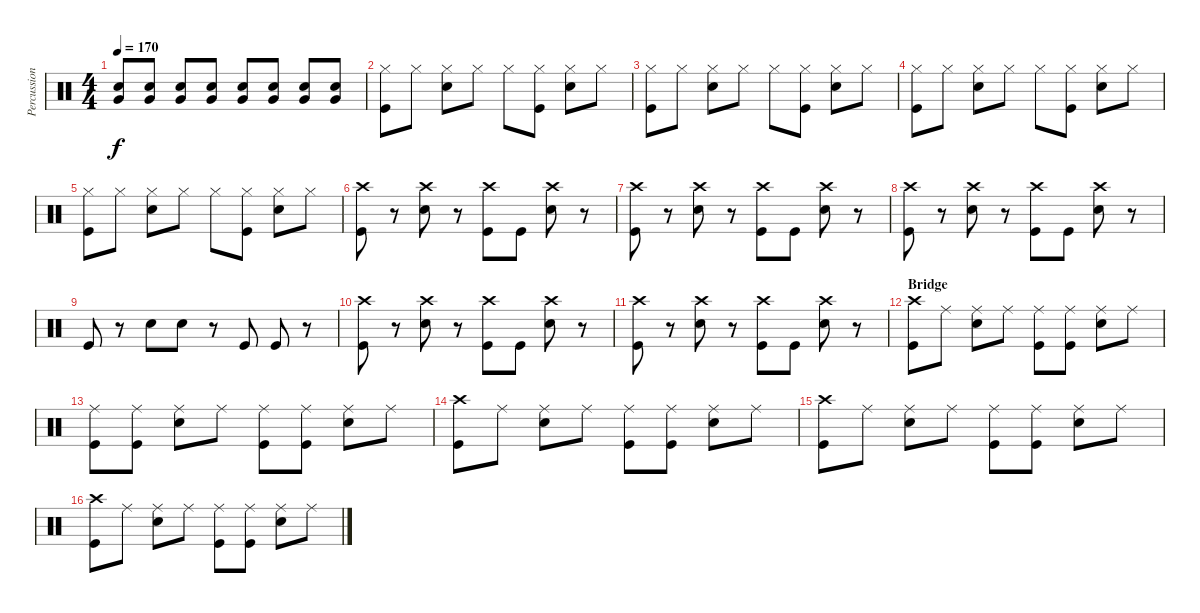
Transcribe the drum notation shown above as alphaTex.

\track ("Percussion" "Percussion") {instrument percussion}
\staff {score}
\articulation defaults
\ts (4 4)
\tempo 170
\clef neutral
\ks c
("Snare (hit) 2" "Very Low Tom (hit)").8{dy f} ("Snare (hit) 2" "Very Low Tom (hit)").8 ("Snare (hit) 2" "Very Low Tom (hit)").8 ("Snare (hit) 2" "Very Low Tom (hit)").8 ("Snare (hit) 2" "Very Low Tom (hit)").8 ("Snare (hit) 2" "Very Low Tom (hit)").8 ("Snare (hit) 2" "Very Low Tom (hit)").8 ("Snare (hit) 2" "Very Low Tom (hit)").8 |
("Hi-Hat (closed)" "Kick (hit)").8 "Hi-Hat (closed)".8 ("Hi-Hat (closed)" "Snare (hit) 2").8 "Hi-Hat (closed)".8 "Hi-Hat (closed)".8 ("Hi-Hat (closed)" "Kick (hit)").8 ("Hi-Hat (closed)" "Snare (hit) 2").8 "Hi-Hat (closed)".8 |
("Hi-Hat (closed)" "Kick (hit)").8 "Hi-Hat (closed)".8 ("Hi-Hat (closed)" "Snare (hit) 2").8 "Hi-Hat (closed)".8 "Hi-Hat (closed)".8 ("Hi-Hat (closed)" "Kick (hit)").8 ("Hi-Hat (closed)" "Snare (hit) 2").8 "Hi-Hat (closed)".8 |
("Hi-Hat (closed)" "Kick (hit)").8 "Hi-Hat (closed)".8 ("Hi-Hat (closed)" "Snare (hit) 2").8 "Hi-Hat (closed)".8 "Hi-Hat (closed)".8 ("Hi-Hat (closed)" "Kick (hit)").8 ("Hi-Hat (closed)" "Snare (hit) 2").8 "Hi-Hat (closed)".8 |
("Hi-Hat (closed)" "Kick (hit)").8 "Hi-Hat (closed)".8 ("Hi-Hat (closed)" "Snare (hit) 2").8 "Hi-Hat (closed)".8 "Hi-Hat (closed)".8 ("Hi-Hat (closed)" "Kick (hit)").8 ("Hi-Hat (closed)" "Snare (hit) 2").8 "Hi-Hat (closed)".8 |
("Crash high (hit)" "Kick (hit)").8 r.8 ("Crash high (hit)" "Snare (hit) 2").8 r.8 ("Crash high (hit)" "Kick (hit)").8 "Kick (hit)".8 ("Crash high (hit)" "Snare (hit) 2").8 r.8 |
("Crash high (hit)" "Kick (hit)").8 r.8 ("Crash high (hit)" "Snare (hit) 2").8 r.8 ("Crash high (hit)" "Kick (hit)").8 "Kick (hit)".8 ("Crash high (hit)" "Snare (hit) 2").8 r.8 |
("Crash high (hit)" "Kick (hit)").8 r.8 ("Crash high (hit)" "Snare (hit) 2").8 r.8 ("Crash high (hit)" "Kick (hit)").8 "Kick (hit)".8 ("Crash high (hit)" "Snare (hit) 2").8 r.8 |
"Kick (hit)".8 r.8 "Snare (hit) 2".8 "Snare (hit) 2".8 r.8 "Kick (hit)".8 "Kick (hit)".8 r.8 |
("Crash high (hit)" "Kick (hit)").8 r.8 ("Crash high (hit)" "Snare (hit) 2").8 r.8 ("Crash high (hit)" "Kick (hit)").8 "Kick (hit)".8 ("Crash high (hit)" "Snare (hit) 2").8 r.8 |
("Crash high (hit)" "Kick (hit)").8 r.8 ("Crash high (hit)" "Snare (hit) 2").8 r.8 ("Crash high (hit)" "Kick (hit)").8 "Kick (hit)".8 ("Crash high (hit)" "Snare (hit) 2").8 r.8 |
\section ("" "Bridge")
("Crash high (hit)" "Kick (hit)").8 "Ride (middle)".8 ("Ride (middle)" "Snare (hit) 2").8 "Ride (middle)".8 ("Ride (middle)" "Kick (hit)").8 ("Ride (middle)" "Kick (hit)").8 ("Ride (middle)" "Snare (hit) 2").8 "Ride (middle)".8 |
("Ride (middle)" "Kick (hit)").8 ("Ride (middle)" "Kick (hit)").8 ("Ride (middle)" "Snare (hit) 2").8 "Ride (middle)".8 ("Ride (middle)" "Kick (hit)").8 ("Ride (middle)" "Kick (hit)").8 ("Ride (middle)" "Snare (hit) 2").8 "Ride (middle)".8 |
("Crash high (hit)" "Kick (hit)").8 "Ride (middle)".8 ("Ride (middle)" "Snare (hit) 2").8 "Ride (middle)".8 ("Ride (middle)" "Kick (hit)").8 ("Ride (middle)" "Kick (hit)").8 ("Ride (middle)" "Snare (hit) 2").8 "Ride (middle)".8 |
("Crash high (hit)" "Kick (hit)").8 "Ride (middle)".8 ("Ride (middle)" "Snare (hit) 2").8 "Ride (middle)".8 ("Ride (middle)" "Kick (hit)").8 ("Ride (middle)" "Kick (hit)").8 ("Ride (middle)" "Snare (hit) 2").8 "Ride (middle)".8 |
("Crash high (hit)" "Kick (hit)").8 "Ride (middle)".8 ("Ride (middle)" "Snare (hit) 2").8 "Ride (middle)".8 ("Ride (middle)" "Kick (hit)").8 ("Ride (middle)" "Kick (hit)").8 ("Ride (middle)" "Snare (hit) 2").8 "Ride (middle)".8
